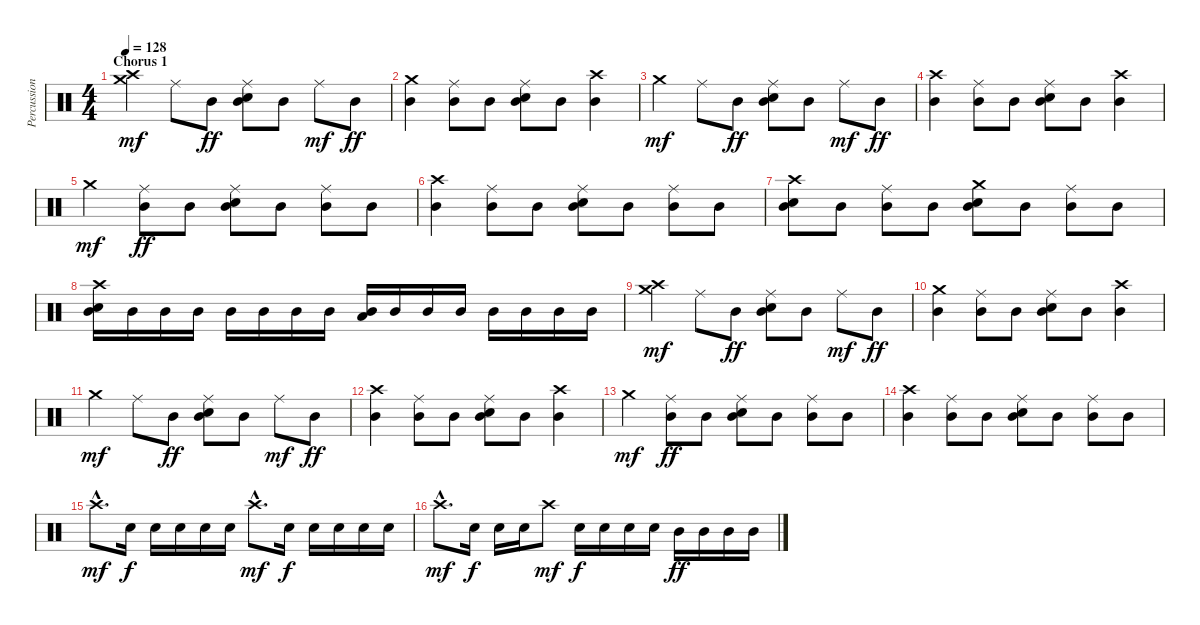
\track ("Percussion" "Percussion") {instrument percussion}
\staff {score}
\articulation defaults
\ts (4 4)
\section ("" "Chorus 1")
\tempo 128
\clef neutral
\ks c
("Crash high (hit)" "Crash medium (hit)").4{dy mf} "Ride (middle)".8 "Mid Tom (hit)".8{dy ff} ("Ride (middle)" "Electric Snare (hit)" "Mid Tom (hit)").8 "Mid Tom (hit)".8 "Ride (middle)".8{dy mf} "Mid Tom (hit)".8{dy ff} |
("Crash medium (hit)" "Mid Tom (hit)").4 ("Ride (middle)" "Mid Tom (hit)").8 "Mid Tom (hit)".8 ("Ride (middle)" "Electric Snare (hit)" "Mid Tom (hit)").8 "Mid Tom (hit)".8 ("Crash high (hit)" "Mid Tom (hit)").4 |
"Crash medium (hit)".4{dy mf} "Ride (middle)".8 "Mid Tom (hit)".8{dy ff} ("Ride (middle)" "Electric Snare (hit)" "Mid Tom (hit)").8 "Mid Tom (hit)".8 "Ride (middle)".8{dy mf} "Mid Tom (hit)".8{dy ff} |
("Crash high (hit)" "Mid Tom (hit)").4 ("Ride (middle)" "Mid Tom (hit)").8 "Mid Tom (hit)".8 ("Ride (middle)" "Electric Snare (hit)" "Mid Tom (hit)").8 "Mid Tom (hit)".8 ("Crash high (hit)" "Mid Tom (hit)").4 |
"Crash medium (hit)".4{dy mf} ("Ride (middle)" "Mid Tom (hit)").8{dy ff} "Mid Tom (hit)".8 ("Ride (middle)" "Electric Snare (hit)" "Mid Tom (hit)").8 "Mid Tom (hit)".8 ("Ride (middle)" "Mid Tom (hit)").8 "Mid Tom (hit)".8 |
("Crash high (hit)" "Mid Tom (hit)").4 ("Ride (middle)" "Mid Tom (hit)").8 "Mid Tom (hit)".8 ("Ride (middle)" "Electric Snare (hit)" "Mid Tom (hit)").8 "Mid Tom (hit)".8 ("Ride (middle)" "Mid Tom (hit)").8 "Mid Tom (hit)".8 |
("Crash high (hit)" "Electric Snare (hit)" "Mid Tom (hit)").8 "Mid Tom (hit)".8 ("Ride (middle)" "Mid Tom (hit)").8 "Mid Tom (hit)".8 ("Crash medium (hit)" "Electric Snare (hit)" "Mid Tom (hit)").8 "Mid Tom (hit)".8 ("Ride (middle)" "Mid Tom (hit)").8 "Mid Tom (hit)".8 |
("Crash high (hit)" "Electric Snare (hit)" "Mid Tom (hit)").16 "Mid Tom (hit)".16 "Mid Tom (hit)".16 "Mid Tom (hit)".16 "Mid Tom (hit)".16 "Mid Tom (hit)".16 "Mid Tom (hit)".16 "Mid Tom (hit)".16 ("Low Floor Tom (hit)" "Mid Tom (hit)").16 "Mid Tom (hit)".16 "Mid Tom (hit)".16 "Mid Tom (hit)".16 "Mid Tom (hit)".16 "Mid Tom (hit)".16 "Mid Tom (hit)".16 "Mid Tom (hit)".16 |
("Crash high (hit)" "Crash medium (hit)").4{dy mf} "Ride (middle)".8 "Mid Tom (hit)".8{dy ff} ("Ride (middle)" "Electric Snare (hit)" "Mid Tom (hit)").8 "Mid Tom (hit)".8 "Ride (middle)".8{dy mf} "Mid Tom (hit)".8{dy ff} |
("Crash medium (hit)" "Mid Tom (hit)").4 ("Ride (middle)" "Mid Tom (hit)").8 "Mid Tom (hit)".8 ("Ride (middle)" "Electric Snare (hit)" "Mid Tom (hit)").8 "Mid Tom (hit)".8 ("Crash high (hit)" "Mid Tom (hit)").4 |
"Crash medium (hit)".4{dy mf} "Ride (middle)".8 "Mid Tom (hit)".8{dy ff} ("Ride (middle)" "Electric Snare (hit)" "Mid Tom (hit)").8 "Mid Tom (hit)".8 "Ride (middle)".8{dy mf} "Mid Tom (hit)".8{dy ff} |
("Crash high (hit)" "Mid Tom (hit)").4 ("Ride (middle)" "Mid Tom (hit)").8 "Mid Tom (hit)".8 ("Ride (middle)" "Electric Snare (hit)" "Mid Tom (hit)").8 "Mid Tom (hit)".8 ("Crash high (hit)" "Mid Tom (hit)").4 |
"Crash medium (hit)".4{dy mf} ("Ride (middle)" "Mid Tom (hit)").8{dy ff} "Mid Tom (hit)".8 ("Ride (middle)" "Electric Snare (hit)" "Mid Tom (hit)").8 "Mid Tom (hit)".8 ("Ride (middle)" "Mid Tom (hit)").8 "Mid Tom (hit)".8 |
("Crash high (hit)" "Mid Tom (hit)").4 ("Ride (middle)" "Mid Tom (hit)").8 "Mid Tom (hit)".8 ("Ride (middle)" "Electric Snare (hit)" "Mid Tom (hit)").8 "Mid Tom (hit)".8 ("Ride (middle)" "Mid Tom (hit)").8 "Mid Tom (hit)".8 |
"Crash high (hit)"{hac}.8{d dy mf} "Snare (hit) 2".16{dy f} "Snare (hit) 2".16 "Snare (hit) 2".16 "Snare (hit) 2".16 "Snare (hit) 2".16 "Crash high (hit)"{hac}.8{d dy mf} "Snare (hit) 2".16{dy f} "Snare (hit) 2".16 "Snare (hit) 2".16 "Snare (hit) 2".16 "Snare (hit) 2".16 |
"Crash high (hit)"{hac}.8{d dy mf} "Snare (hit) 2".16{dy f} "Snare (hit) 2".16 "Snare (hit) 2".16 "Crash high (hit)".8{dy mf} "Snare (hit) 2".16{dy f} "Snare (hit) 2".16 "Snare (hit) 2".16 "Snare (hit) 2".16 "Mid Tom (hit)".16{dy ff} "Mid Tom (hit)".16 "Mid Tom (hit)".16 "Mid Tom (hit)".16
